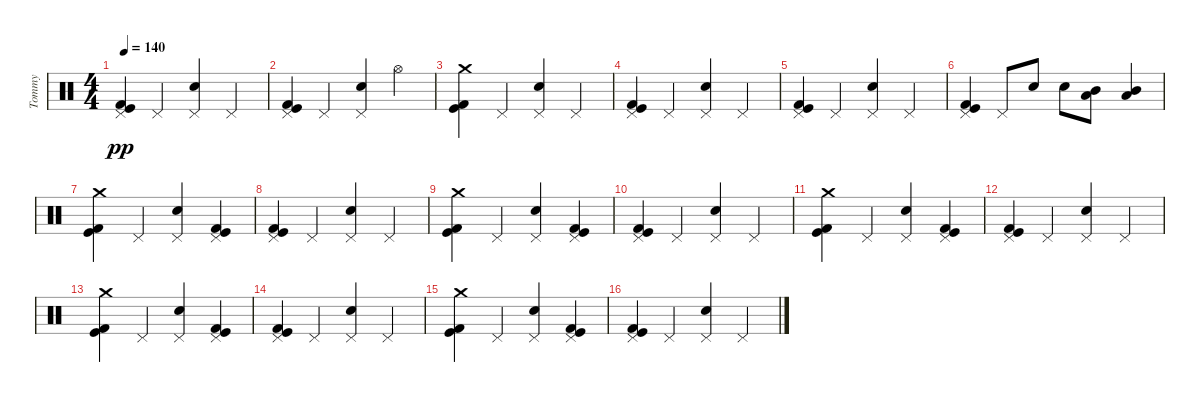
\track ("Tommy" "Tommy") {instrument percussion}
\staff {score}
\articulation defaults
\ts (4 4)
\tempo 140
\clef neutral
\ks c
("Pedal Hi-Hat (hit)" "Kick (hit) 2" "Kick (hit)").4{dy pp} "Pedal Hi-Hat (hit)".4 ("Pedal Hi-Hat (hit)" "Snare (hit) 2").4 "Pedal Hi-Hat (hit)".4 |
("Pedal Hi-Hat (hit)" "Kick (hit) 2" "Kick (hit)").4 "Pedal Hi-Hat (hit)".4 ("Pedal Hi-Hat (hit)" "Snare (hit) 2").4 "Hi-Hat (open)".4 |
("Kick (hit) 2" "Kick (hit)" "Crash medium (hit)").4 "Pedal Hi-Hat (hit)".4 ("Pedal Hi-Hat (hit)" "Snare (hit) 2").4 "Pedal Hi-Hat (hit)".4 |
("Pedal Hi-Hat (hit)" "Kick (hit) 2" "Kick (hit)").4 "Pedal Hi-Hat (hit)".4 ("Pedal Hi-Hat (hit)" "Snare (hit) 2").4 "Pedal Hi-Hat (hit)".4 |
("Pedal Hi-Hat (hit)" "Kick (hit) 2" "Kick (hit)").4 "Pedal Hi-Hat (hit)".4 ("Pedal Hi-Hat (hit)" "Snare (hit) 2").4 "Pedal Hi-Hat (hit)".4 |
("Pedal Hi-Hat (hit)" "Kick (hit) 2" "Kick (hit)").4 "Pedal Hi-Hat (hit)".8 "Snare (hit) 2".8 "Snare (hit) 2".8 ("Low Tom (hit)" "Mid Tom (hit)").8 ("Low Tom (hit)" "Mid Tom (hit)").4 |
("Kick (hit) 2" "Kick (hit)" "Crash medium (hit)").4 "Pedal Hi-Hat (hit)".4 ("Pedal Hi-Hat (hit)" "Snare (hit) 2").4 ("Kick (hit)" "Kick (hit) 2" "Pedal Hi-Hat (hit)").4 |
("Pedal Hi-Hat (hit)" "Kick (hit) 2" "Kick (hit)").4 "Pedal Hi-Hat (hit)".4 ("Pedal Hi-Hat (hit)" "Snare (hit) 2").4 "Pedal Hi-Hat (hit)".4 |
("Kick (hit) 2" "Kick (hit)" "Crash medium (hit)").4 "Pedal Hi-Hat (hit)".4 ("Pedal Hi-Hat (hit)" "Snare (hit) 2").4 ("Kick (hit)" "Kick (hit) 2" "Pedal Hi-Hat (hit)").4 |
("Pedal Hi-Hat (hit)" "Kick (hit) 2" "Kick (hit)").4 "Pedal Hi-Hat (hit)".4 ("Pedal Hi-Hat (hit)" "Snare (hit) 2").4 "Pedal Hi-Hat (hit)".4 |
("Kick (hit) 2" "Kick (hit)" "Crash medium (hit)").4 "Pedal Hi-Hat (hit)".4 ("Pedal Hi-Hat (hit)" "Snare (hit) 2").4 ("Kick (hit)" "Kick (hit) 2" "Pedal Hi-Hat (hit)").4 |
("Pedal Hi-Hat (hit)" "Kick (hit) 2" "Kick (hit)").4 "Pedal Hi-Hat (hit)".4 ("Pedal Hi-Hat (hit)" "Snare (hit) 2").4 "Pedal Hi-Hat (hit)".4 |
("Kick (hit) 2" "Kick (hit)" "Crash medium (hit)").4 "Pedal Hi-Hat (hit)".4 ("Pedal Hi-Hat (hit)" "Snare (hit) 2").4 ("Kick (hit)" "Kick (hit) 2" "Pedal Hi-Hat (hit)").4 |
("Pedal Hi-Hat (hit)" "Kick (hit) 2" "Kick (hit)").4 "Pedal Hi-Hat (hit)".4 ("Pedal Hi-Hat (hit)" "Snare (hit) 2").4 "Pedal Hi-Hat (hit)".4 |
("Kick (hit) 2" "Kick (hit)" "Crash medium (hit)").4 "Pedal Hi-Hat (hit)".4 ("Pedal Hi-Hat (hit)" "Snare (hit) 2").4 ("Kick (hit)" "Kick (hit) 2" "Pedal Hi-Hat (hit)").4 |
("Pedal Hi-Hat (hit)" "Kick (hit) 2" "Kick (hit)").4 "Pedal Hi-Hat (hit)".4 ("Pedal Hi-Hat (hit)" "Snare (hit) 2").4 "Pedal Hi-Hat (hit)".4
